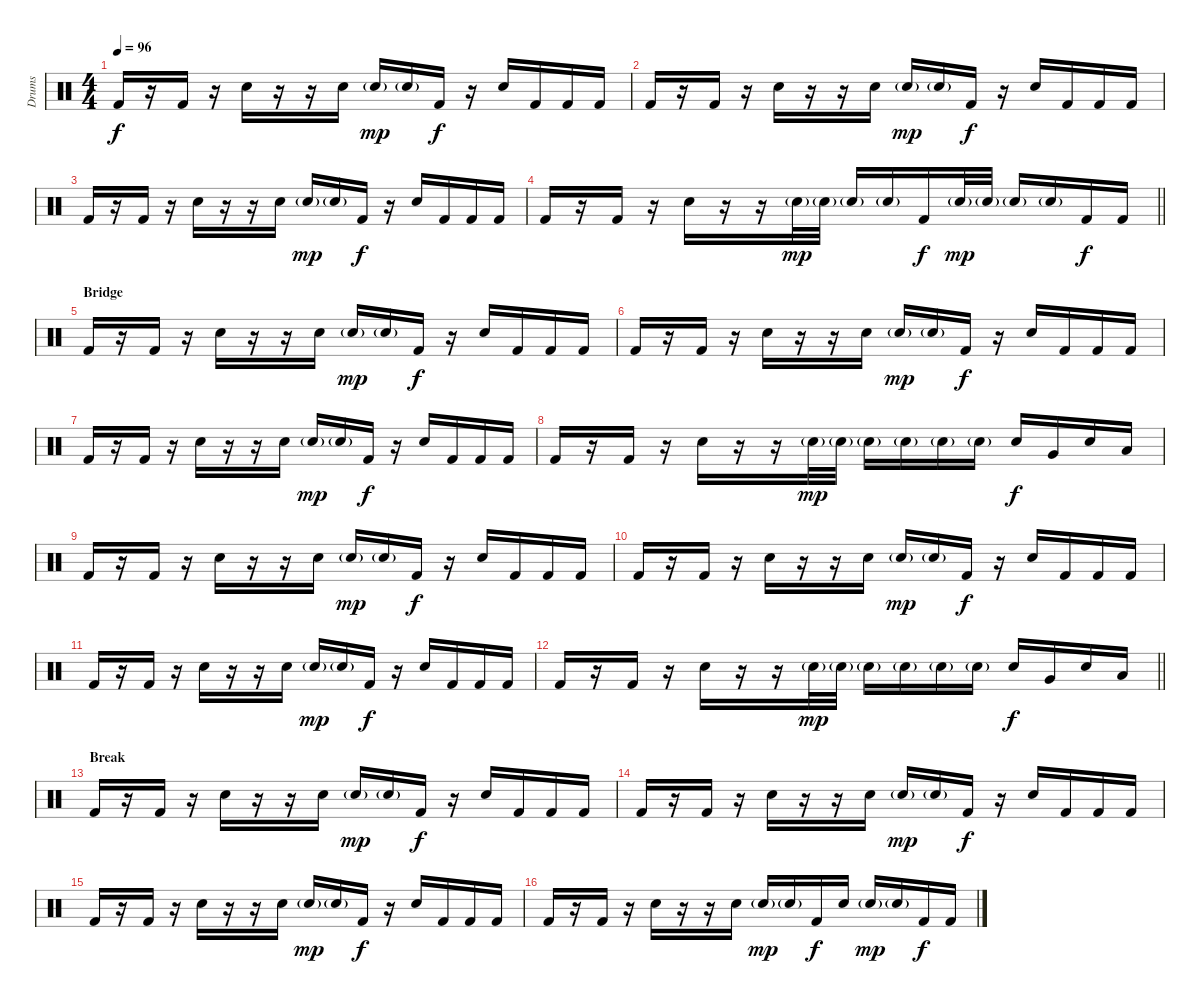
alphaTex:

\track ("Drums" "Drums") {instrument percussion}
\staff {score}
\articulation defaults
\ts (4 4)
\tempo 96
\clef neutral
\ks c "Kick (hit) 2".16{dy f}
r.16 "Kick (hit) 2".16 r.16 "Snare (hit) 2".16 r.16 r.16 "Snare (hit) 2".16 "Snare (hit) 2"{g}.16{dy mp} "Snare (hit) 2"{g}.16 "Kick (hit) 2".16{dy f} r.16 "Snare (hit) 2".16 "Kick (hit) 2".16 "Kick (hit) 2".16 "Kick (hit) 2".16 |
"Kick (hit) 2".16 r.16 "Kick (hit) 2".16 r.16 "Snare (hit) 2".16 r.16 r.16 "Snare (hit) 2".16 "Snare (hit) 2"{g}.16{dy mp} "Snare (hit) 2"{g}.16 "Kick (hit) 2".16{dy f} r.16 "Snare (hit) 2".16 "Kick (hit) 2".16 "Kick (hit) 2".16 "Kick (hit) 2".16 |
"Kick (hit) 2".16 r.16 "Kick (hit) 2".16 r.16 "Snare (hit) 2".16 r.16 r.16 "Snare (hit) 2".16 "Snare (hit) 2"{g}.16{dy mp} "Snare (hit) 2"{g}.16 "Kick (hit) 2".16{dy f} r.16 "Snare (hit) 2".16 "Kick (hit) 2".16 "Kick (hit) 2".16 "Kick (hit) 2".16 |
\barLineRight lightlight "Kick (hit) 2".16
r.16 "Kick (hit) 2".16 r.16 "Snare (hit) 2".16 r.16 r.16 "Snare (hit) 2"{g}.32{dy mp} "Snare (hit) 2"{g}.32 "Snare (hit) 2"{g}.16 "Snare (hit) 2"{g}.16 "Kick (hit) 2".16{dy f} "Snare (hit) 2"{g}.32{dy mp} "Snare (hit) 2"{g}.32 "Snare (hit) 2"{g}.16 "Snare (hit) 2"{g}.16 "Kick (hit) 2".16{dy f} "Kick (hit) 2".16 |
\section ("" "Bridge")
"Kick (hit) 2".16 r.16 "Kick (hit) 2".16 r.16 "Snare (hit) 2".16 r.16 r.16 "Snare (hit) 2".16 "Snare (hit) 2"{g}.16{dy mp} "Snare (hit) 2"{g}.16 "Kick (hit) 2".16{dy f} r.16 "Snare (hit) 2".16 "Kick (hit) 2".16 "Kick (hit) 2".16 "Kick (hit) 2".16 |
"Kick (hit) 2".16 r.16 "Kick (hit) 2".16 r.16 "Snare (hit) 2".16 r.16 r.16 "Snare (hit) 2".16 "Snare (hit) 2"{g}.16{dy mp} "Snare (hit) 2"{g}.16 "Kick (hit) 2".16{dy f} r.16 "Snare (hit) 2".16 "Kick (hit) 2".16 "Kick (hit) 2".16 "Kick (hit) 2".16 |
"Kick (hit) 2".16 r.16 "Kick (hit) 2".16 r.16 "Snare (hit) 2".16 r.16 r.16 "Snare (hit) 2".16 "Snare (hit) 2"{g}.16{dy mp} "Snare (hit) 2"{g}.16 "Kick (hit) 2".16{dy f} r.16 "Snare (hit) 2".16 "Kick (hit) 2".16 "Kick (hit) 2".16 "Kick (hit) 2".16 |
"Kick (hit) 2".16 r.16 "Kick (hit) 2".16 r.16 "Snare (hit) 2".16 r.16 r.16 "Snare (hit) 2"{g}.32{dy mp} "Snare (hit) 2"{g}.32 "Snare (hit) 2"{g}.16 "Snare (hit) 2"{g}.16 "Snare (hit) 2"{g}.16 "Snare (hit) 2"{g}.16 "Snare (hit) 2".16{dy f} "Very Low Tom (hit)".16 "Snare (hit) 2".16 "Low Tom (hit)".16 |
"Kick (hit) 2".16 r.16 "Kick (hit) 2".16 r.16 "Snare (hit) 2".16 r.16 r.16 "Snare (hit) 2".16 "Snare (hit) 2"{g}.16{dy mp} "Snare (hit) 2"{g}.16 "Kick (hit) 2".16{dy f} r.16 "Snare (hit) 2".16 "Kick (hit) 2".16 "Kick (hit) 2".16 "Kick (hit) 2".16 |
"Kick (hit) 2".16 r.16 "Kick (hit) 2".16 r.16 "Snare (hit) 2".16 r.16 r.16 "Snare (hit) 2".16 "Snare (hit) 2"{g}.16{dy mp} "Snare (hit) 2"{g}.16 "Kick (hit) 2".16{dy f} r.16 "Snare (hit) 2".16 "Kick (hit) 2".16 "Kick (hit) 2".16 "Kick (hit) 2".16 |
"Kick (hit) 2".16 r.16 "Kick (hit) 2".16 r.16 "Snare (hit) 2".16 r.16 r.16 "Snare (hit) 2".16 "Snare (hit) 2"{g}.16{dy mp} "Snare (hit) 2"{g}.16 "Kick (hit) 2".16{dy f} r.16 "Snare (hit) 2".16 "Kick (hit) 2".16 "Kick (hit) 2".16 "Kick (hit) 2".16 |
\barLineRight lightlight "Kick (hit) 2".16
r.16 "Kick (hit) 2".16 r.16 "Snare (hit) 2".16 r.16 r.16 "Snare (hit) 2"{g}.32{dy mp} "Snare (hit) 2"{g}.32 "Snare (hit) 2"{g}.16 "Snare (hit) 2"{g}.16 "Snare (hit) 2"{g}.16 "Snare (hit) 2"{g}.16 "Snare (hit) 2".16{dy f} "Very Low Tom (hit)".16 "Snare (hit) 2".16 "Low Tom (hit)".16 |
\section ("" "Break")
"Kick (hit) 2".16 r.16 "Kick (hit) 2".16 r.16 "Snare (hit) 2".16 r.16 r.16 "Snare (hit) 2".16 "Snare (hit) 2"{g}.16{dy mp} "Snare (hit) 2"{g}.16 "Kick (hit) 2".16{dy f} r.16 "Snare (hit) 2".16 "Kick (hit) 2".16 "Kick (hit) 2".16 "Kick (hit) 2".16 |
"Kick (hit) 2".16 r.16 "Kick (hit) 2".16 r.16 "Snare (hit) 2".16 r.16 r.16 "Snare (hit) 2".16 "Snare (hit) 2"{g}.16{dy mp} "Snare (hit) 2"{g}.16 "Kick (hit) 2".16{dy f} r.16 "Snare (hit) 2".16 "Kick (hit) 2".16 "Kick (hit) 2".16 "Kick (hit) 2".16 |
"Kick (hit) 2".16 r.16 "Kick (hit) 2".16 r.16 "Snare (hit) 2".16 r.16 r.16 "Snare (hit) 2".16 "Snare (hit) 2"{g}.16{dy mp} "Snare (hit) 2"{g}.16 "Kick (hit) 2".16{dy f} r.16 "Snare (hit) 2".16 "Kick (hit) 2".16 "Kick (hit) 2".16 "Kick (hit) 2".16 |
"Kick (hit) 2".16 r.16 "Kick (hit) 2".16 r.16 "Snare (hit) 2".16 r.16 r.16 "Snare (hit) 2".16 "Snare (hit) 2"{g}.16{dy mp} "Snare (hit) 2"{g}.16 "Kick (hit) 2".16{dy f} "Snare (hit) 2".16 "Snare (hit) 2"{g}.16{dy mp} "Snare (hit) 2"{g}.16 "Kick (hit) 2".16{dy f} "Kick (hit) 2".16
